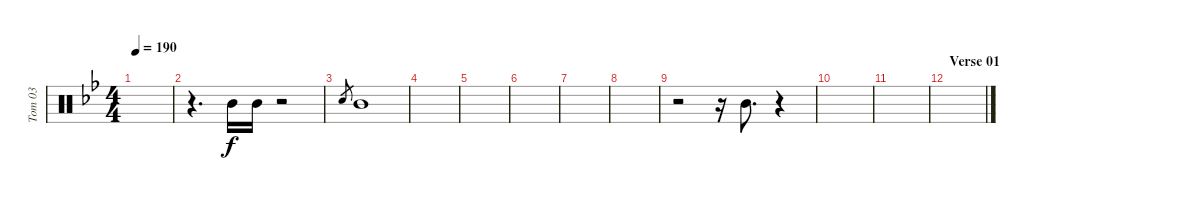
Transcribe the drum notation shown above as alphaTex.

\track ("Tom 03" "Tom 03") {instrument percussion}
\staff {score}
\articulation defaults
\ts (4 4)
\tempo 190
\clef neutral
\ks bb
|
r.4{d} "Mid Tom (hit)".16 "Mid Tom (hit)".16 r.2 |
"Snare (hit)".8{gr} "Mid Tom (hit)".1 |
|
|
|
|
|
r.2 r.16 "Mid Tom (hit)".8{d} r.4 |
|
|
\section ("" "Verse 01")
